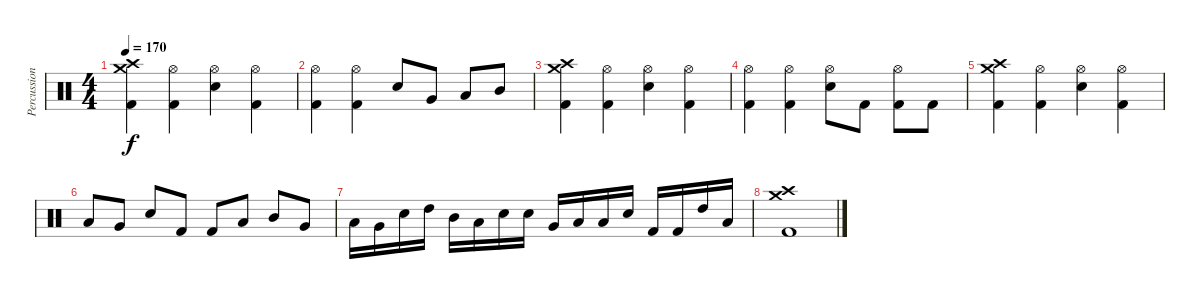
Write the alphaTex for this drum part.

\track ("Percussion" "Percussion") {instrument percussion}
\staff {score}
\articulation defaults
\ts (4 4)
\tempo 170
\clef neutral
\ks c
("Crash high (hit)" "Crash medium (hit)" "Kick (hit) 2").4{dy f} ("Hi-Hat (open)" "Kick (hit) 2").4 ("Hi-Hat (open)" "Snare (hit) 2").4 ("Hi-Hat (open)" "Kick (hit) 2").4 |
("Hi-Hat (open)" "Kick (hit) 2").4 ("Hi-Hat (open)" "Kick (hit) 2").4 "Snare (hit) 2".8 "Very Low Tom (hit)".8 "Low Tom (hit)".8 "Mid Tom (hit)".8 |
("Crash medium (hit)" "Crash high (hit)" "Kick (hit) 2").4 ("Hi-Hat (open)" "Kick (hit) 2").4 ("Hi-Hat (open)" "Snare (hit) 2").4 ("Hi-Hat (open)" "Kick (hit) 2").4 |
("Hi-Hat (open)" "Kick (hit) 2").4 ("Hi-Hat (open)" "Kick (hit) 2").4 ("Hi-Hat (open)" "Snare (hit) 2").8 "Kick (hit) 2".8 ("Hi-Hat (open)" "Kick (hit) 2").8 "Kick (hit) 2".8 |
("Crash high (hit)" "Crash medium (hit)" "Kick (hit) 2").4 ("Hi-Hat (open)" "Kick (hit) 2").4 ("Hi-Hat (open)" "Snare (hit) 2").4 ("Hi-Hat (open)" "Kick (hit) 2").4 |
"Low Floor Tom (hit)".8 "Very Low Tom (hit)".8 "Snare (hit) 2".8 "Kick (hit) 2".8 "Kick (hit) 2".8 "Low Tom (hit)".8 "Mid Tom (hit)".8 "Very Low Tom (hit)".8 |
"Low Floor Tom (hit)".16 "Very Low Tom (hit)".16 "Snare (hit) 2".16 "High Tom (hit)".16 "Mid Tom (hit)".16 "Low Tom (hit)".16 "Snare (hit) 2".16 "Snare (hit) 2".16 "Very Low Tom (hit)".16 "Low Floor Tom (hit)".16 "Low Floor Tom (hit)".16 "Snare (hit) 2".16 "Kick (hit) 2".16 "Kick (hit) 2".16 "High Tom (hit)".16 "Low Tom (hit)".16 |
("Crash high (hit)" "Crash medium (hit)" "Kick (hit) 2").1
